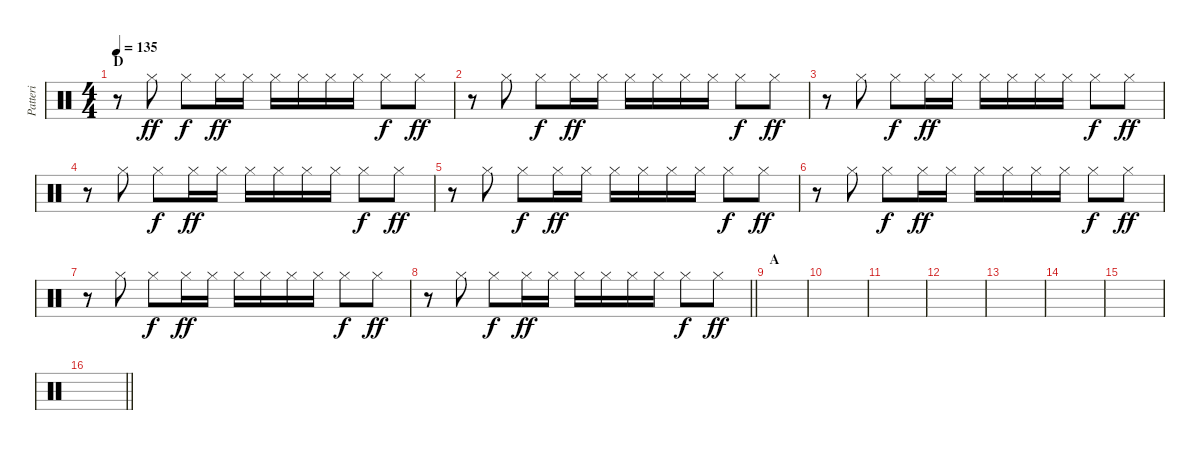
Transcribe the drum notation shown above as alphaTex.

\track ("Patteri" "Patteri") {instrument percussion}
\staff {score}
\articulation defaults
\ts (4 4)
\section ("" "D")
\tempo 135
\clef neutral
\ks c
r.8{dy ff} "Hi-Hat (closed)".8 "Hi-Hat (closed)".8{dy f} "Hi-Hat (closed)".16{dy ff} "Hi-Hat (closed)".16 "Hi-Hat (closed)".16 "Hi-Hat (closed)".16 "Hi-Hat (closed)".16 "Hi-Hat (closed)".16 "Hi-Hat (closed)".8{dy f} "Hi-Hat (closed)".8{dy ff} |
r.8 "Hi-Hat (closed)".8 "Hi-Hat (closed)".8{dy f} "Hi-Hat (closed)".16{dy ff} "Hi-Hat (closed)".16 "Hi-Hat (closed)".16 "Hi-Hat (closed)".16 "Hi-Hat (closed)".16 "Hi-Hat (closed)".16 "Hi-Hat (closed)".8{dy f} "Hi-Hat (closed)".8{dy ff} |
r.8 "Hi-Hat (closed)".8 "Hi-Hat (closed)".8{dy f} "Hi-Hat (closed)".16{dy ff} "Hi-Hat (closed)".16 "Hi-Hat (closed)".16 "Hi-Hat (closed)".16 "Hi-Hat (closed)".16 "Hi-Hat (closed)".16 "Hi-Hat (closed)".8{dy f} "Hi-Hat (closed)".8{dy ff} |
r.8 "Hi-Hat (closed)".8 "Hi-Hat (closed)".8{dy f} "Hi-Hat (closed)".16{dy ff} "Hi-Hat (closed)".16 "Hi-Hat (closed)".16 "Hi-Hat (closed)".16 "Hi-Hat (closed)".16 "Hi-Hat (closed)".16 "Hi-Hat (closed)".8{dy f} "Hi-Hat (closed)".8{dy ff} |
r.8 "Hi-Hat (closed)".8 "Hi-Hat (closed)".8{dy f} "Hi-Hat (closed)".16{dy ff} "Hi-Hat (closed)".16 "Hi-Hat (closed)".16 "Hi-Hat (closed)".16 "Hi-Hat (closed)".16 "Hi-Hat (closed)".16 "Hi-Hat (closed)".8{dy f} "Hi-Hat (closed)".8{dy ff} |
r.8 "Hi-Hat (closed)".8 "Hi-Hat (closed)".8{dy f} "Hi-Hat (closed)".16{dy ff} "Hi-Hat (closed)".16 "Hi-Hat (closed)".16 "Hi-Hat (closed)".16 "Hi-Hat (closed)".16 "Hi-Hat (closed)".16 "Hi-Hat (closed)".8{dy f} "Hi-Hat (closed)".8{dy ff} |
r.8 "Hi-Hat (closed)".8 "Hi-Hat (closed)".8{dy f} "Hi-Hat (closed)".16{dy ff} "Hi-Hat (closed)".16 "Hi-Hat (closed)".16 "Hi-Hat (closed)".16 "Hi-Hat (closed)".16 "Hi-Hat (closed)".16 "Hi-Hat (closed)".8{dy f} "Hi-Hat (closed)".8{dy ff} |
\barLineRight lightlight
r.8 "Hi-Hat (closed)".8 "Hi-Hat (closed)".8{dy f} "Hi-Hat (closed)".16{dy ff} "Hi-Hat (closed)".16 "Hi-Hat (closed)".16 "Hi-Hat (closed)".16 "Hi-Hat (closed)".16 "Hi-Hat (closed)".16 "Hi-Hat (closed)".8{dy f} "Hi-Hat (closed)".8{dy ff} |
\section ("" "A")
|
|
|
|
|
|
|
\barLineRight lightlight
